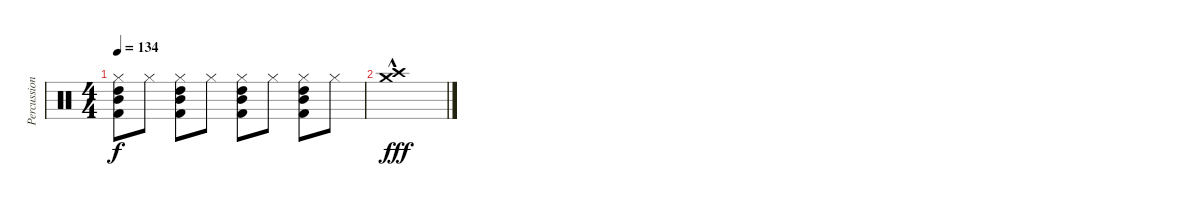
\track ("Percussion" "Percussion") {instrument percussion}
\staff {score}
\articulation defaults
\ts (4 4)
\tempo 134
\clef neutral
\ks c
("Hi-Hat (closed)" "Mid Tom (hit)" "High Tom (hit)" "Kick (hit) 2").8{dy f} "Hi-Hat (closed)".8 ("Hi-Hat (closed)" "Mid Tom (hit)" "High Tom (hit)" "Kick (hit) 2").8 "Hi-Hat (closed)".8 ("Hi-Hat (closed)" "Mid Tom (hit)" "High Tom (hit)" "Kick (hit) 2").8 "Hi-Hat (closed)".8 ("Hi-Hat (closed)" "Mid Tom (hit)" "High Tom (hit)" "Kick (hit) 2").8 "Hi-Hat (closed)".8 |
("Crash high (hit)"{hac} "Crash medium (hit)"{hac}).1{dy fff}
